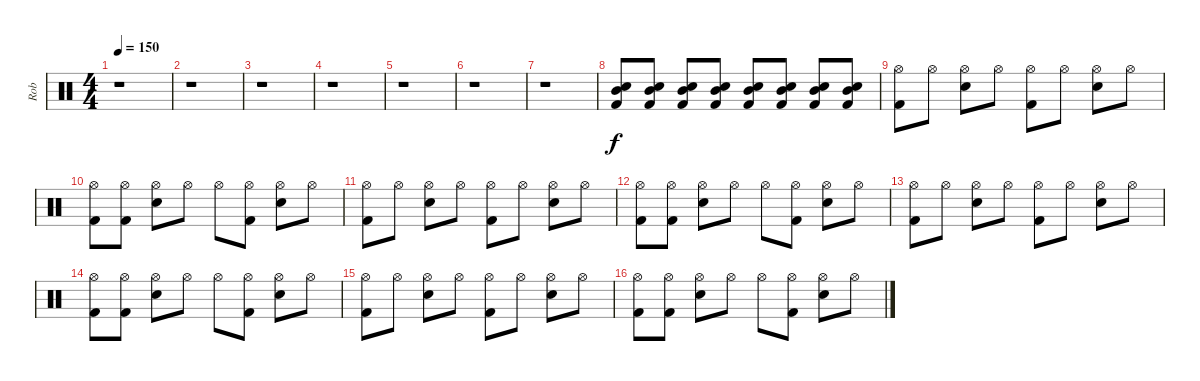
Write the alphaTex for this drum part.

\track ("Rob" "Rob") {instrument percussion}
\staff {score}
\articulation defaults
\ts (4 4)
\tempo 150
\clef neutral
\ks c
r.1{dy f} |
r.1 |
r.1 |
r.1 |
r.1 |
r.1 |
r.1 |
("Mid Tom (hit)" "Electric Snare (hit)" "Kick (hit) 2").8 ("Mid Tom (hit)" "Electric Snare (hit)" "Kick (hit) 2").8 ("Mid Tom (hit)" "Electric Snare (hit)" "Kick (hit) 2").8 ("Mid Tom (hit)" "Electric Snare (hit)" "Kick (hit) 2").8 ("Mid Tom (hit)" "Electric Snare (hit)" "Kick (hit) 2").8 ("Mid Tom (hit)" "Electric Snare (hit)" "Kick (hit) 2").8 ("Mid Tom (hit)" "Electric Snare (hit)" "Kick (hit) 2").8 ("Mid Tom (hit)" "Electric Snare (hit)" "Kick (hit) 2").8 |
("Hi-Hat (open)" "Kick (hit) 2").8 "Hi-Hat (open)".8 ("Hi-Hat (open)" "Electric Snare (hit)").8 "Hi-Hat (open)".8 ("Hi-Hat (open)" "Kick (hit) 2").8 "Hi-Hat (open)".8 ("Hi-Hat (open)" "Electric Snare (hit)").8 "Hi-Hat (open)".8 |
("Hi-Hat (open)" "Kick (hit) 2").8 ("Hi-Hat (open)" "Kick (hit) 2").8 ("Hi-Hat (open)" "Electric Snare (hit)").8 "Hi-Hat (open)".8 "Hi-Hat (open)".8 ("Hi-Hat (open)" "Kick (hit) 2").8 ("Hi-Hat (open)" "Electric Snare (hit)").8 "Hi-Hat (open)".8 |
("Hi-Hat (open)" "Kick (hit) 2").8 "Hi-Hat (open)".8 ("Hi-Hat (open)" "Electric Snare (hit)").8 "Hi-Hat (open)".8 ("Hi-Hat (open)" "Kick (hit) 2").8 "Hi-Hat (open)".8 ("Hi-Hat (open)" "Electric Snare (hit)").8 "Hi-Hat (open)".8 |
("Hi-Hat (open)" "Kick (hit) 2").8 ("Hi-Hat (open)" "Kick (hit) 2").8 ("Hi-Hat (open)" "Electric Snare (hit)").8 "Hi-Hat (open)".8 "Hi-Hat (open)".8 ("Hi-Hat (open)" "Kick (hit) 2").8 ("Hi-Hat (open)" "Electric Snare (hit)").8 "Hi-Hat (open)".8 |
("Hi-Hat (open)" "Kick (hit) 2").8 "Hi-Hat (open)".8 ("Hi-Hat (open)" "Electric Snare (hit)").8 "Hi-Hat (open)".8 ("Hi-Hat (open)" "Kick (hit) 2").8 "Hi-Hat (open)".8 ("Hi-Hat (open)" "Electric Snare (hit)").8 "Hi-Hat (open)".8 |
("Hi-Hat (open)" "Kick (hit) 2").8 ("Hi-Hat (open)" "Kick (hit) 2").8 ("Hi-Hat (open)" "Electric Snare (hit)").8 "Hi-Hat (open)".8 "Hi-Hat (open)".8 ("Hi-Hat (open)" "Kick (hit) 2").8 ("Hi-Hat (open)" "Electric Snare (hit)").8 "Hi-Hat (open)".8 |
("Hi-Hat (open)" "Kick (hit) 2").8 "Hi-Hat (open)".8 ("Hi-Hat (open)" "Electric Snare (hit)").8 "Hi-Hat (open)".8 ("Hi-Hat (open)" "Kick (hit) 2").8 "Hi-Hat (open)".8 ("Hi-Hat (open)" "Electric Snare (hit)").8 "Hi-Hat (open)".8 |
("Hi-Hat (open)" "Kick (hit) 2").8 ("Hi-Hat (open)" "Kick (hit) 2").8 ("Hi-Hat (open)" "Electric Snare (hit)").8 "Hi-Hat (open)".8 "Hi-Hat (open)".8 ("Hi-Hat (open)" "Kick (hit) 2").8 ("Hi-Hat (open)" "Electric Snare (hit)").8 "Hi-Hat (open)".8
